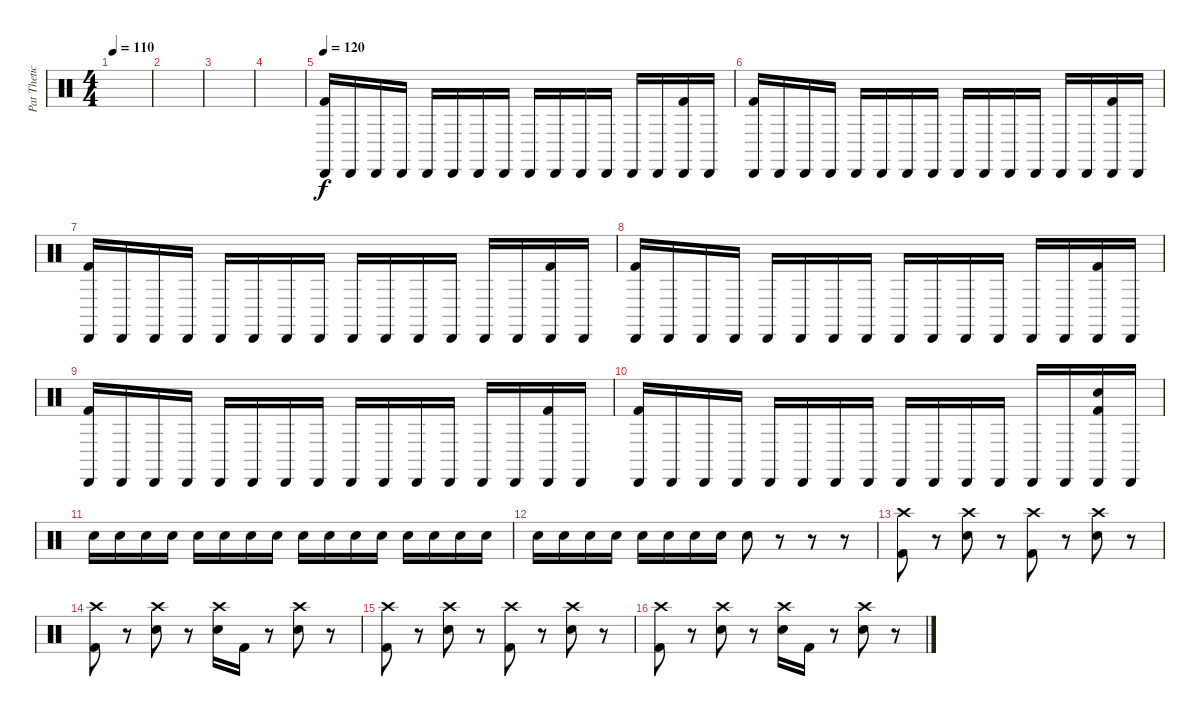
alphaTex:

\track ("Pat Thetic" "Pat Thetic") {instrument percussion}
\staff {score}
\articulation defaults
\ts (4 4)
\tempo 110
\clef neutral
\ks c
|
|
|
|
\tempo 120
("Cabasa (hit)" "Kick (hit) 2").16 "Cabasa (hit)".16 "Cabasa (hit)".16 "Cabasa (hit)".16 "Cabasa (hit)".16 "Cabasa (hit)".16 "Cabasa (hit)".16 "Cabasa (hit)".16 "Cabasa (hit)".16 "Cabasa (hit)".16 "Cabasa (hit)".16 "Cabasa (hit)".16 "Cabasa (hit)".16 "Cabasa (hit)".16 ("Cabasa (hit)" "Kick (hit) 2").16 "Cabasa (hit)".16 |
("Cabasa (hit)" "Kick (hit) 2").16 "Cabasa (hit)".16 "Cabasa (hit)".16 "Cabasa (hit)".16 "Cabasa (hit)".16 "Cabasa (hit)".16 "Cabasa (hit)".16 "Cabasa (hit)".16 "Cabasa (hit)".16 "Cabasa (hit)".16 "Cabasa (hit)".16 "Cabasa (hit)".16 "Cabasa (hit)".16 "Cabasa (hit)".16 ("Cabasa (hit)" "Kick (hit) 2").16 "Cabasa (hit)".16 |
("Cabasa (hit)" "Kick (hit) 2").16 "Cabasa (hit)".16 "Cabasa (hit)".16 "Cabasa (hit)".16 "Cabasa (hit)".16 "Cabasa (hit)".16 "Cabasa (hit)".16 "Cabasa (hit)".16 "Cabasa (hit)".16 "Cabasa (hit)".16 "Cabasa (hit)".16 "Cabasa (hit)".16 "Cabasa (hit)".16 "Cabasa (hit)".16 ("Cabasa (hit)" "Kick (hit) 2").16 "Cabasa (hit)".16 |
("Cabasa (hit)" "Kick (hit) 2").16 "Cabasa (hit)".16 "Cabasa (hit)".16 "Cabasa (hit)".16 "Cabasa (hit)".16 "Cabasa (hit)".16 "Cabasa (hit)".16 "Cabasa (hit)".16 "Cabasa (hit)".16 "Cabasa (hit)".16 "Cabasa (hit)".16 "Cabasa (hit)".16 "Cabasa (hit)".16 "Cabasa (hit)".16 ("Cabasa (hit)" "Kick (hit) 2").16 "Cabasa (hit)".16 |
("Cabasa (hit)" "Kick (hit) 2").16 "Cabasa (hit)".16 "Cabasa (hit)".16 "Cabasa (hit)".16 "Cabasa (hit)".16 "Cabasa (hit)".16 "Cabasa (hit)".16 "Cabasa (hit)".16 "Cabasa (hit)".16 "Cabasa (hit)".16 "Cabasa (hit)".16 "Cabasa (hit)".16 "Cabasa (hit)".16 "Cabasa (hit)".16 ("Cabasa (hit)" "Kick (hit) 2").16 "Cabasa (hit)".16 |
("Cabasa (hit)" "Kick (hit) 2").16 "Cabasa (hit)".16 "Cabasa (hit)".16 "Cabasa (hit)".16 "Cabasa (hit)".16 "Cabasa (hit)".16 "Cabasa (hit)".16 "Cabasa (hit)".16 "Cabasa (hit)".16 "Cabasa (hit)".16 "Cabasa (hit)".16 "Cabasa (hit)".16 "Cabasa (hit)".16 "Cabasa (hit)".16 ("Cabasa (hit)" "Electric Snare (hit)" "Kick (hit) 2").16 "Cabasa (hit)".16 |
"Electric Snare (hit)".16 "Electric Snare (hit)".16 "Electric Snare (hit)".16 "Electric Snare (hit)".16 "Electric Snare (hit)".16 "Electric Snare (hit)".16 "Electric Snare (hit)".16 "Electric Snare (hit)".16 "Electric Snare (hit)".16 "Electric Snare (hit)".16 "Electric Snare (hit)".16 "Electric Snare (hit)".16 "Electric Snare (hit)".16 "Electric Snare (hit)".16 "Electric Snare (hit)".16 "Electric Snare (hit)".16 |
"Electric Snare (hit)".16 "Electric Snare (hit)".16 "Electric Snare (hit)".16 "Electric Snare (hit)".16 "Electric Snare (hit)".16 "Electric Snare (hit)".16 "Electric Snare (hit)".16 "Electric Snare (hit)".16 "Electric Snare (hit)".8 r.8 r.8 r.8 |
("Crash high (hit)" "Kick (hit) 2").8 r.8 ("Crash high (hit)" "Electric Snare (hit)").8 r.8 ("Crash high (hit)" "Kick (hit) 2").8 r.8 ("Crash high (hit)" "Electric Snare (hit)").8 r.8 |
("Crash high (hit)" "Kick (hit) 2").8 r.8 ("Crash high (hit)" "Electric Snare (hit)").8 r.8 ("Crash high (hit)" "Electric Snare (hit)").16 "Kick (hit) 2".16 r.8 ("Crash high (hit)" "Electric Snare (hit)").8 r.8 |
("Crash high (hit)" "Kick (hit) 2").8 r.8 ("Crash high (hit)" "Electric Snare (hit)").8 r.8 ("Crash high (hit)" "Kick (hit) 2").8 r.8 ("Crash high (hit)" "Electric Snare (hit)").8 r.8 |
("Crash high (hit)" "Kick (hit) 2").8 r.8 ("Crash high (hit)" "Electric Snare (hit)").8 r.8 ("Crash high (hit)" "Electric Snare (hit)").16 "Kick (hit) 2".16 r.8 ("Crash high (hit)" "Electric Snare (hit)").8 r.8
